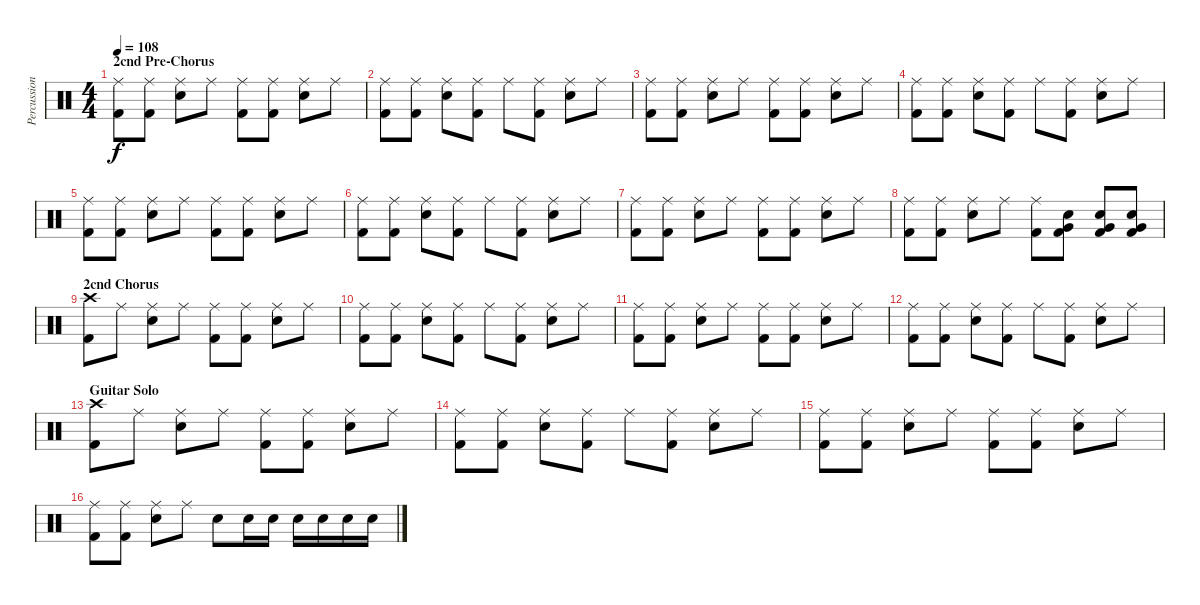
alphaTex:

\track ("Percussion" "Percussion") {instrument percussion}
\staff {score}
\articulation defaults
\ts (4 4)
\section ("" "2cnd Pre-Chorus")
\tempo 108
\clef neutral
\ks c
("Ride (middle)" "Kick (hit) 2").8{dy f} ("Ride (middle)" "Kick (hit) 2").8 ("Ride (middle)" "Snare (hit) 2").8 "Ride (middle)".8 ("Ride (middle)" "Kick (hit) 2").8 ("Ride (middle)" "Kick (hit) 2").8 ("Ride (middle)" "Snare (hit) 2").8 "Ride (middle)".8 |
("Ride (middle)" "Kick (hit) 2").8 ("Ride (middle)" "Kick (hit) 2").8 ("Ride (middle)" "Snare (hit) 2").8 ("Ride (middle)" "Kick (hit) 2").8 "Ride (middle)".8 ("Ride (middle)" "Kick (hit) 2").8 ("Ride (middle)" "Snare (hit) 2").8 "Ride (middle)".8 |
("Ride (middle)" "Kick (hit) 2").8 ("Ride (middle)" "Kick (hit) 2").8 ("Ride (middle)" "Snare (hit) 2").8 "Ride (middle)".8 ("Ride (middle)" "Kick (hit) 2").8 ("Ride (middle)" "Kick (hit) 2").8 ("Ride (middle)" "Snare (hit) 2").8 "Ride (middle)".8 |
("Ride (middle)" "Kick (hit) 2").8 ("Ride (middle)" "Kick (hit) 2").8 ("Ride (middle)" "Snare (hit) 2").8 ("Ride (middle)" "Kick (hit) 2").8 "Ride (middle)".8 ("Ride (middle)" "Kick (hit) 2").8 ("Ride (middle)" "Snare (hit) 2").8 "Ride (middle)".8 |
("Ride (middle)" "Kick (hit) 2").8 ("Ride (middle)" "Kick (hit) 2").8 ("Ride (middle)" "Snare (hit) 2").8 "Ride (middle)".8 ("Ride (middle)" "Kick (hit) 2").8 ("Ride (middle)" "Kick (hit) 2").8 ("Ride (middle)" "Snare (hit) 2").8 "Ride (middle)".8 |
("Ride (middle)" "Kick (hit) 2").8 ("Ride (middle)" "Kick (hit) 2").8 ("Ride (middle)" "Snare (hit) 2").8 ("Ride (middle)" "Kick (hit) 2").8 "Ride (middle)".8 ("Ride (middle)" "Kick (hit) 2").8 ("Ride (middle)" "Snare (hit) 2").8 "Ride (middle)".8 |
("Ride (middle)" "Kick (hit) 2").8 ("Ride (middle)" "Kick (hit) 2").8 ("Ride (middle)" "Snare (hit) 2").8 "Ride (middle)".8 ("Ride (middle)" "Kick (hit) 2").8 ("Ride (middle)" "Kick (hit) 2").8 ("Ride (middle)" "Snare (hit) 2").8 "Ride (middle)".8 |
("Ride (middle)" "Kick (hit) 2").8 ("Ride (middle)" "Kick (hit) 2").8 ("Ride (middle)" "Snare (hit) 2").8 "Ride (middle)".8 ("Ride (middle)" "Kick (hit) 2").8 ("Very Low Tom (hit)" "Snare (hit) 2" "Kick (hit) 2").8 ("Very Low Tom (hit)" "Snare (hit) 2" "Kick (hit) 2").8 ("Very Low Tom (hit)" "Snare (hit) 2" "Kick (hit) 2").8 |
\section ("" "2cnd Chorus")
("Crash high (hit)" "Kick (hit) 2").8 "Ride (middle)".8 ("Ride (middle)" "Snare (hit) 2").8 "Ride (middle)".8 ("Ride (middle)" "Kick (hit) 2").8 ("Ride (middle)" "Kick (hit) 2").8 ("Ride (middle)" "Snare (hit) 2").8 "Ride (middle)".8 |
("Ride (middle)" "Kick (hit) 2").8 ("Ride (middle)" "Kick (hit) 2").8 ("Ride (middle)" "Snare (hit) 2").8 ("Ride (middle)" "Kick (hit) 2").8 "Ride (middle)".8 ("Ride (middle)" "Kick (hit) 2").8 ("Ride (middle)" "Snare (hit) 2").8 "Ride (middle)".8 |
("Ride (middle)" "Kick (hit) 2").8 ("Ride (middle)" "Kick (hit) 2").8 ("Ride (middle)" "Snare (hit) 2").8 "Ride (middle)".8 ("Ride (middle)" "Kick (hit) 2").8 ("Ride (middle)" "Kick (hit) 2").8 ("Ride (middle)" "Snare (hit) 2").8 "Ride (middle)".8 |
("Ride (middle)" "Kick (hit) 2").8 ("Ride (middle)" "Kick (hit) 2").8 ("Ride (middle)" "Snare (hit) 2").8 ("Ride (middle)" "Kick (hit) 2").8 "Ride (middle)".8 ("Ride (middle)" "Kick (hit) 2").8 ("Ride (middle)" "Snare (hit) 2").8 "Ride (middle)".8 |
\section ("" "Guitar Solo")
("Crash high (hit)" "Kick (hit) 2").8 "Ride (middle)".8 ("Ride (middle)" "Snare (hit) 2").8 "Ride (middle)".8 ("Ride (middle)" "Kick (hit) 2").8 ("Ride (middle)" "Kick (hit) 2").8 ("Ride (middle)" "Snare (hit) 2").8 "Ride (middle)".8 |
("Ride (middle)" "Kick (hit) 2").8 ("Ride (middle)" "Kick (hit) 2").8 ("Ride (middle)" "Snare (hit) 2").8 ("Ride (middle)" "Kick (hit) 2").8 "Ride (middle)".8 ("Ride (middle)" "Kick (hit) 2").8 ("Ride (middle)" "Snare (hit) 2").8 "Ride (middle)".8 |
("Ride (middle)" "Kick (hit) 2").8 ("Ride (middle)" "Kick (hit) 2").8 ("Ride (middle)" "Snare (hit) 2").8 "Ride (middle)".8 ("Ride (middle)" "Kick (hit) 2").8 ("Ride (middle)" "Kick (hit) 2").8 ("Ride (middle)" "Snare (hit) 2").8 "Ride (middle)".8 |
("Ride (middle)" "Kick (hit) 2").8 ("Ride (middle)" "Kick (hit) 2").8 ("Ride (middle)" "Snare (hit) 2").8 "Ride (middle)".8 "Snare (hit) 2".8 "Snare (hit) 2".16 "Snare (hit) 2".16 "Snare (hit) 2".16 "Snare (hit) 2".16 "Snare (hit) 2".16 "Snare (hit) 2".16
